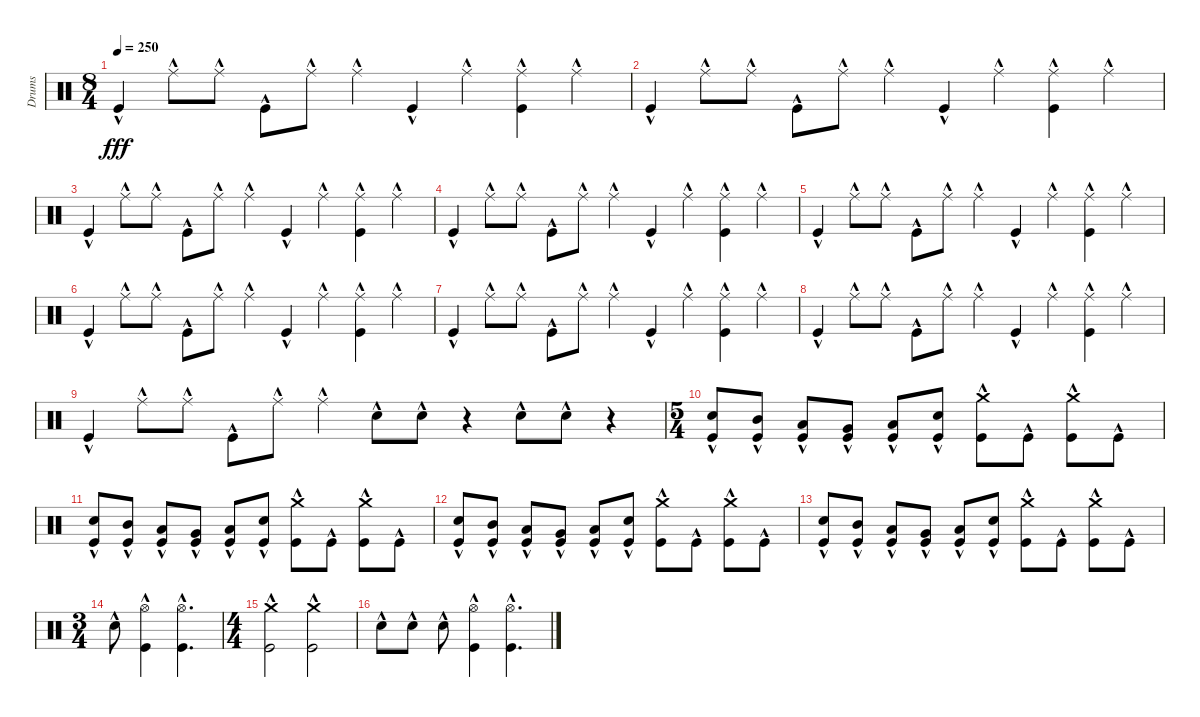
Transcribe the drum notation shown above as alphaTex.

\track ("Drums" "Drums") {instrument percussion}
\staff {score}
\articulation defaults
\ts (8 4)
\tempo 250
\clef neutral
\ks c "Kick (hit)"{hac}.4{dy fff} "Ride (middle)"{hac}.8 "Ride (middle)"{hac}.8 "Kick (hit)"{hac}.8 "Ride (middle)"{hac}.8 "Ride (middle)"{hac}.4 "Kick (hit)"{hac}.4 "Ride (middle)"{hac}.4
("Ride (middle)" "Kick (hit)"{hac}).4 "Ride (middle)"{hac}.4 |
"Kick (hit)"{hac}.4 "Ride (middle)"{hac}.8 "Ride (middle)"{hac}.8 "Kick (hit)"{hac}.8 "Ride (middle)"{hac}.8 "Ride (middle)"{hac}.4 "Kick (hit)"{hac}.4 "Ride (middle)"{hac}.4 ("Ride (middle)" "Kick (hit)"{hac}).4 "Ride (middle)"{hac}.4 |
"Kick (hit)"{hac}.4 "Ride (middle)"{hac}.8 "Ride (middle)"{hac}.8 "Kick (hit)"{hac}.8 "Ride (middle)"{hac}.8 "Ride (middle)"{hac}.4 "Kick (hit)"{hac}.4 "Ride (middle)"{hac}.4 ("Ride (middle)" "Kick (hit)"{hac}).4 "Ride (middle)"{hac}.4 |
"Kick (hit)"{hac}.4 "Ride (middle)"{hac}.8 "Ride (middle)"{hac}.8 "Kick (hit)"{hac}.8 "Ride (middle)"{hac}.8 "Ride (middle)"{hac}.4 "Kick (hit)"{hac}.4 "Ride (middle)"{hac}.4 ("Ride (middle)" "Kick (hit)"{hac}).4 "Ride (middle)"{hac}.4 |
"Kick (hit)"{hac}.4 "Ride (middle)"{hac}.8 "Ride (middle)"{hac}.8 "Kick (hit)"{hac}.8 "Ride (middle)"{hac}.8 "Ride (middle)"{hac}.4 "Kick (hit)"{hac}.4 "Ride (middle)"{hac}.4 ("Ride (middle)" "Kick (hit)"{hac}).4 "Ride (middle)"{hac}.4 |
"Kick (hit)"{hac}.4 "Ride (middle)"{hac}.8 "Ride (middle)"{hac}.8 "Kick (hit)"{hac}.8 "Ride (middle)"{hac}.8 "Ride (middle)"{hac}.4 "Kick (hit)"{hac}.4 "Ride (middle)"{hac}.4 ("Ride (middle)" "Kick (hit)"{hac}).4 "Ride (middle)"{hac}.4 |
"Kick (hit)"{hac}.4 "Ride (middle)"{hac}.8 "Ride (middle)"{hac}.8 "Kick (hit)"{hac}.8 "Ride (middle)"{hac}.8 "Ride (middle)"{hac}.4 "Kick (hit)"{hac}.4 "Ride (middle)"{hac}.4 ("Ride (middle)" "Kick (hit)"{hac}).4 "Ride (middle)"{hac}.4 |
"Kick (hit)"{hac}.4 "Ride (middle)"{hac}.8 "Ride (middle)"{hac}.8 "Kick (hit)"{hac}.8 "Ride (middle)"{hac}.8 "Ride (middle)"{hac}.4 "Kick (hit)"{hac}.4 "Ride (middle)"{hac}.4 ("Ride (middle)" "Kick (hit)"{hac}).4 "Ride (middle)"{hac}.4 |
"Kick (hit)"{hac}.4 "Ride (middle)"{hac}.8 "Ride (middle)"{hac}.8 "Kick (hit)"{hac}.8 "Ride (middle)"{hac}.8 "Ride (middle)"{hac}.4 "Snare (hit) 2"{hac}.8 "Snare (hit) 2"{hac}.8 r.4 "Snare (hit) 2"{hac}.8 "Snare (hit) 2"{hac}.8 r.4 |
\ts (5 4)
("Snare (hit) 2"{hac} "Kick (hit)"{hac}).8 ("Mid Tom (hit)"{hac} "Kick (hit)"{hac}).8 ("Low Tom (hit)"{hac} "Kick (hit)"{hac}).8 ("Very Low Tom (hit)"{hac} "Kick (hit)"{hac}).8 ("Low Floor Tom (hit)"{hac} "Kick (hit)"{hac}).8 ("Snare (hit) 2"{hac} "Kick (hit)"{hac}).8 ("Crash medium (hit)"{hac} "Kick (hit)"{hac}).8 "Kick (hit)"{hac}.8 ("Crash medium (hit)"{hac} "Kick (hit)"{hac}).8 "Kick (hit)"{hac}.8 |
("Snare (hit) 2"{hac} "Kick (hit)"{hac}).8 ("Mid Tom (hit)"{hac} "Kick (hit)"{hac}).8 ("Low Tom (hit)"{hac} "Kick (hit)"{hac}).8 ("Very Low Tom (hit)"{hac} "Kick (hit)"{hac}).8 ("Low Floor Tom (hit)"{hac} "Kick (hit)"{hac}).8 ("Snare (hit) 2"{hac} "Kick (hit)"{hac}).8 ("Crash medium (hit)"{hac} "Kick (hit)"{hac}).8 "Kick (hit)"{hac}.8 ("Crash medium (hit)"{hac} "Kick (hit)"{hac}).8 "Kick (hit)"{hac}.8 |
("Snare (hit) 2"{hac} "Kick (hit)"{hac}).8 ("Mid Tom (hit)"{hac} "Kick (hit)"{hac}).8 ("Low Tom (hit)"{hac} "Kick (hit)"{hac}).8 ("Very Low Tom (hit)"{hac} "Kick (hit)"{hac}).8 ("Low Floor Tom (hit)"{hac} "Kick (hit)"{hac}).8 ("Snare (hit) 2"{hac} "Kick (hit)"{hac}).8 ("Crash medium (hit)"{hac} "Kick (hit)"{hac}).8 "Kick (hit)"{hac}.8 ("Crash medium (hit)"{hac} "Kick (hit)"{hac}).8 "Kick (hit)"{hac}.8 |
("Snare (hit) 2"{hac} "Kick (hit)"{hac}).8 ("Mid Tom (hit)"{hac} "Kick (hit)"{hac}).8 ("Low Tom (hit)"{hac} "Kick (hit)"{hac}).8 ("Very Low Tom (hit)"{hac} "Kick (hit)"{hac}).8 ("Low Floor Tom (hit)"{hac} "Kick (hit)"{hac}).8 ("Snare (hit) 2"{hac} "Kick (hit)"{hac}).8 ("Crash medium (hit)"{hac} "Kick (hit)"{hac}).8 "Kick (hit)"{hac}.8 ("Crash medium (hit)"{hac} "Kick (hit)"{hac}).8 "Kick (hit)"{hac}.8 |
\ts (3 4)
"Snare (hit) 2"{hac}.8 ("Hi-Hat (open)"{hac} "Kick (hit)"{hac}).4 ("Hi-Hat (open)"{hac} "Kick (hit)"{hac}).4{d} |
\ts (4 4)
("Crash medium (hit)"{hac} "Kick (hit)"{hac}).2 ("Crash medium (hit)"{hac} "Kick (hit)"{hac}).2 |
"Snare (hit) 2"{hac}.8 "Snare (hit) 2"{hac}.8 "Snare (hit) 2"{hac}.8 ("Hi-Hat (open)"{hac} "Kick (hit)"{hac}).4 ("Hi-Hat (open)"{hac} "Kick (hit)"{hac}).4{d}
